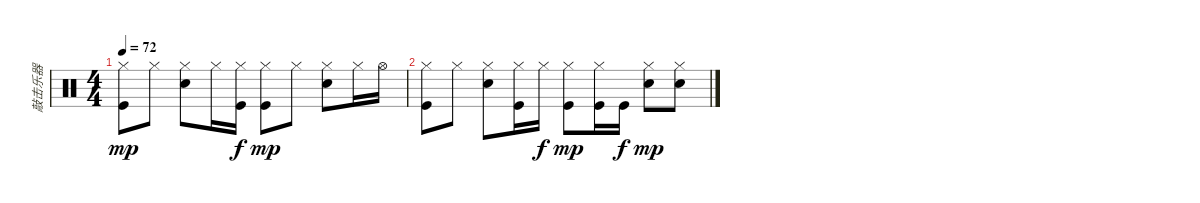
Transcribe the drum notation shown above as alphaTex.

\track ("敲击乐器" "敲击乐器") {instrument percussion}
\staff {score}
\articulation defaults
\ts (4 4)
\tempo 72
\clef neutral
\ks c
("Kick (hit)" "Hi-Hat (closed)").8{dy mp} "Hi-Hat (closed)".8 ("Electric Snare (hit)" "Hi-Hat (closed)").8 "Hi-Hat (closed)".16 ("Kick (hit)" "Hi-Hat (closed)").16{dy f} ("Kick (hit)" "Hi-Hat (closed)").8{dy mp} "Hi-Hat (closed)".8 ("Electric Snare (hit)" "Hi-Hat (closed)").8 "Hi-Hat (closed)".16 "Hi-Hat (open)".16 |
("Kick (hit)" "Hi-Hat (closed)").8 "Hi-Hat (closed)".8 ("Electric Snare (hit)" "Hi-Hat (closed)").8 ("Kick (hit)" "Hi-Hat (closed)").16 "Hi-Hat (closed)".16{dy f} ("Kick (hit)" "Hi-Hat (closed)").8{dy mp} ("Kick (hit)" "Hi-Hat (closed)").16 "Kick (hit)".16{dy f} ("Electric Snare (hit)" "Hi-Hat (closed)").8{dy mp} ("Electric Snare (hit)" "Hi-Hat (closed)").8
